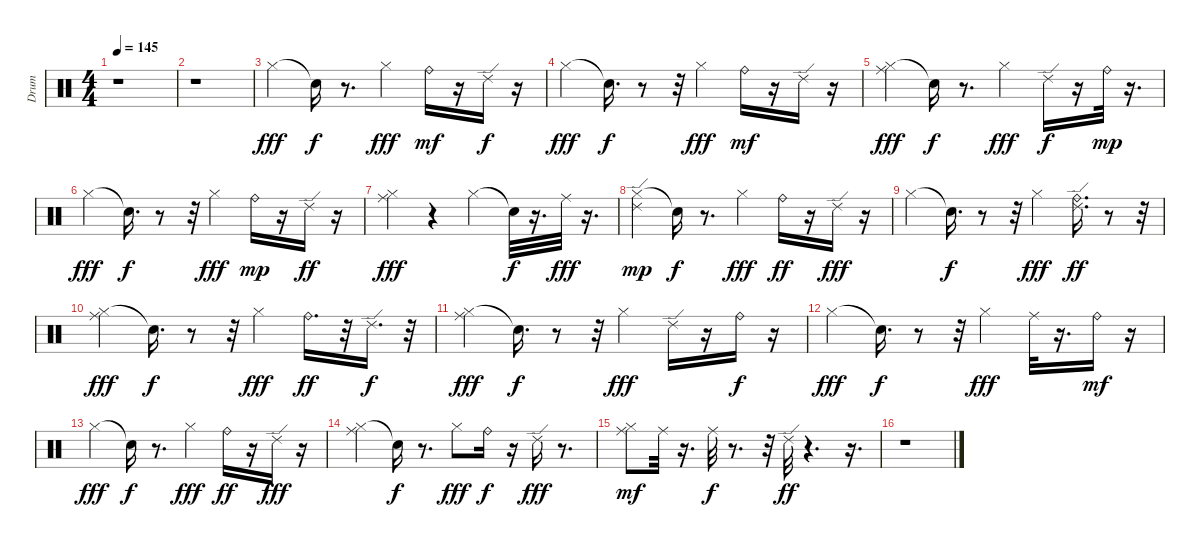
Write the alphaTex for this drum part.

\track ("Drum" "Drum") {instrument percussion}
\staff {score}
\articulation defaults
\ts (4 4)
\tempo 145
\clef neutral
\ks c
r.1{dy fff} |
r.1 |
"Hi-Hat (closed)".4 "Snare (hit)"{t}.16{dy f} r.8{d} "Hi-Hat (closed)".4{dy fff} "Ride (bell)".16{dy mf} r.16 "Ride (edge) 2".16{dy f} r.16 |
"Hi-Hat (closed)".4{dy fff} "Snare (hit)"{t}.16{d dy f} r.8 r.32 "Hi-Hat (closed)".4{dy fff} "Ride (bell)".16{dy mf} r.16 "Ride (edge) 2".16 r.16 |
("Hi-Hat (closed)" "Ride (middle)").4{dy fff} "Snare (hit)"{t}.16{dy f} r.8{d} "Hi-Hat (closed)".4{dy fff} "Ride (edge) 2".16{dy f} r.16 "Ride (bell)".32{dy mp} r.16{d} |
"Hi-Hat (closed)".4{dy fff} "Snare (hit)"{t}.16{d dy f} r.8 r.32 "Hi-Hat (closed)".4{dy fff} "Ride (bell)".16{dy mp} r.16 "Ride (edge) 2".16{dy ff} r.16 |
("Hi-Hat (closed)" "Ride (middle)").4{dy fff} r.4 "Hi-Hat (closed)".4 "Snare (hit)"{t}.32{dy f} r.16{d} "Ride (middle)".32{dy fff} r.16{d} |
("Hi-Hat (closed)" "Ride (edge) 2").4{dy mp} "Snare (hit)"{t}.16{dy f} r.8{d} "Hi-Hat (closed)".4{dy fff} "Ride (bell)".16{dy ff} r.16 "Ride (edge) 2".16{dy fff} r.16 |
"Hi-Hat (closed)".4 "Snare (hit)"{t}.16{d dy f} r.8 r.32 "Hi-Hat (closed)".4{dy fff} ("Ride (bell)" "Ride (edge) 2").16{d dy ff} r.8 r.32 |
("Hi-Hat (closed)" "Ride (middle)").4{dy fff} "Snare (hit)"{t}.16{d dy f} r.8 r.32 "Hi-Hat (closed)".4{dy fff} "Ride (bell)".16{d dy ff} r.32 "Ride (edge) 2".16{d dy f} r.32 |
("Hi-Hat (closed)" "Ride (middle)").4{dy fff} "Snare (hit)"{t}.16{d dy f} r.8 r.32 "Hi-Hat (closed)".4{dy fff} "Ride (edge) 2".16 r.16 "Ride (bell)".16{dy f} r.16 |
"Hi-Hat (closed)".4{dy fff} "Snare (hit)"{t}.16{d dy f} r.8 r.32 "Hi-Hat (closed)".4{dy fff} "Ride (middle)".32 r.16{d} "Ride (bell)".16{dy mf} r.16 |
"Hi-Hat (closed)".4{dy fff} "Snare (hit)"{t}.16{dy f} r.8{d} "Hi-Hat (closed)".4{dy fff} "Ride (bell)".16{dy ff} r.16 "Ride (edge) 2".16{dy fff} r.16 |
("Hi-Hat (closed)" "Ride (middle)").4 "Snare (hit)"{t}.16{dy f} r.8{d} "Hi-Hat (closed)".8{dy fff} "Ride (bell)".16{dy f} r.16 "Ride (edge) 2".16{dy fff} r.8{d} |
("Hi-Hat (closed)" "Ride (middle)").8{dy mf} "Ride (middle)".32 r.16{d} "Ride (middle)".32{dy f} r.8{d} r.32 "Ride (edge) 2".32{dy ff} r.4{d} r.16{d} |
r.1
